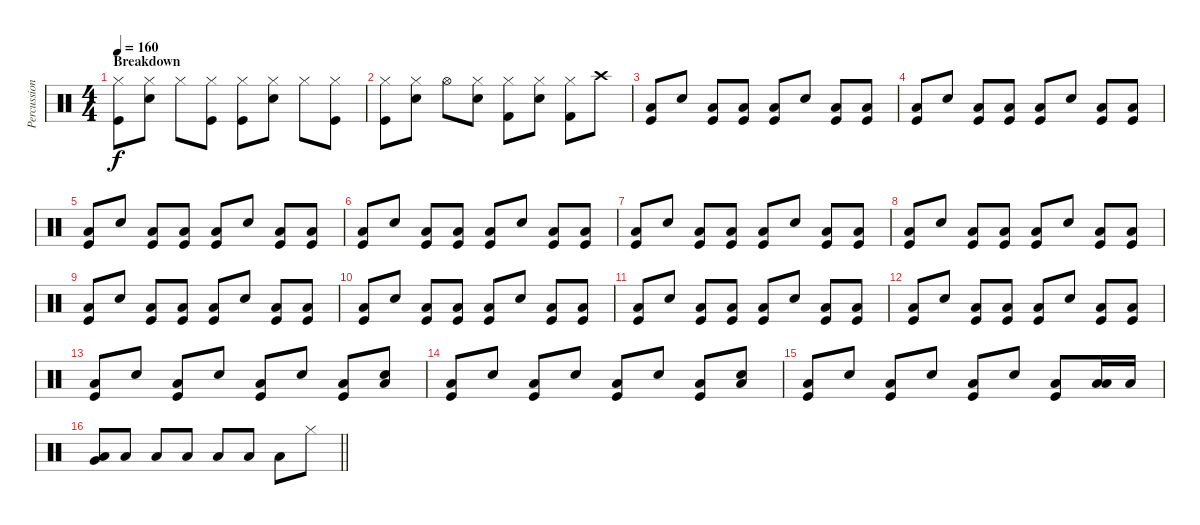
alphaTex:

\track ("Percussion" "Percussion") {instrument percussion}
\staff {score}
\articulation defaults
\ts (4 4)
\section ("" "Breakdown")
\tempo 160
\clef neutral
\ks c
("Hi-Hat (closed)" "Kick (hit)").8{dy f} ("Hi-Hat (closed)" "Electric Snare (hit)").8 "Hi-Hat (closed)".8 ("Hi-Hat (closed)" "Kick (hit)").8 ("Hi-Hat (closed)" "Kick (hit)").8 ("Hi-Hat (closed)" "Electric Snare (hit)").8 "Hi-Hat (closed)".8 ("Hi-Hat (closed)" "Kick (hit)").8 |
("Hi-Hat (closed)" "Kick (hit)").8 ("Hi-Hat (closed)" "Electric Snare (hit)").8 "Hi-Hat (open)".8 ("Hi-Hat (closed)" "Snare (hit) 2").8 ("Hi-Hat (closed)" "Kick (hit) 2").8 ("Hi-Hat (closed)" "Snare (hit) 2").8 ("Hi-Hat (closed)" "Kick (hit) 2").8 "Crash high (hit)".8 |
("Low Floor Tom (hit)" "Kick (hit)").8 "Electric Snare (hit)".8 ("Low Floor Tom (hit)" "Kick (hit)").8 ("Low Floor Tom (hit)" "Kick (hit)").8 ("Low Floor Tom (hit)" "Kick (hit)").8 "Electric Snare (hit)".8 ("Low Floor Tom (hit)" "Kick (hit)").8 ("Low Floor Tom (hit)" "Kick (hit)").8 |
("Low Floor Tom (hit)" "Kick (hit)").8 "Electric Snare (hit)".8 ("Low Floor Tom (hit)" "Kick (hit)").8 ("Low Floor Tom (hit)" "Kick (hit)").8 ("Low Floor Tom (hit)" "Kick (hit)").8 "Electric Snare (hit)".8 ("Low Floor Tom (hit)" "Kick (hit)").8 ("Low Floor Tom (hit)" "Kick (hit)").8 |
("Low Floor Tom (hit)" "Kick (hit)").8 "Electric Snare (hit)".8 ("Low Floor Tom (hit)" "Kick (hit)").8 ("Low Floor Tom (hit)" "Kick (hit)").8 ("Low Floor Tom (hit)" "Kick (hit)").8 "Electric Snare (hit)".8 ("Low Floor Tom (hit)" "Kick (hit)").8 ("Low Floor Tom (hit)" "Kick (hit)").8 |
("Low Floor Tom (hit)" "Kick (hit)").8 "Electric Snare (hit)".8 ("Low Floor Tom (hit)" "Kick (hit)").8 ("Low Floor Tom (hit)" "Kick (hit)").8 ("Low Floor Tom (hit)" "Kick (hit)").8 "Electric Snare (hit)".8 ("Low Floor Tom (hit)" "Kick (hit)").8 ("Low Floor Tom (hit)" "Kick (hit)").8 |
("Low Floor Tom (hit)" "Kick (hit)").8 "Electric Snare (hit)".8 ("Low Floor Tom (hit)" "Kick (hit)").8 ("Low Floor Tom (hit)" "Kick (hit)").8 ("Low Floor Tom (hit)" "Kick (hit)").8 "Electric Snare (hit)".8 ("Low Floor Tom (hit)" "Kick (hit)").8 ("Low Floor Tom (hit)" "Kick (hit)").8 |
("Low Floor Tom (hit)" "Kick (hit)").8 "Electric Snare (hit)".8 ("Low Floor Tom (hit)" "Kick (hit)").8 ("Low Floor Tom (hit)" "Kick (hit)").8 ("Low Floor Tom (hit)" "Kick (hit)").8 "Electric Snare (hit)".8 ("Low Floor Tom (hit)" "Kick (hit)").8 ("Low Floor Tom (hit)" "Kick (hit)").8 |
("Low Floor Tom (hit)" "Kick (hit)").8 "Electric Snare (hit)".8 ("Low Floor Tom (hit)" "Kick (hit)").8 ("Low Floor Tom (hit)" "Kick (hit)").8 ("Low Floor Tom (hit)" "Kick (hit)").8 "Electric Snare (hit)".8 ("Low Floor Tom (hit)" "Kick (hit)").8 ("Low Floor Tom (hit)" "Kick (hit)").8 |
("Low Floor Tom (hit)" "Kick (hit)").8 "Electric Snare (hit)".8 ("Low Floor Tom (hit)" "Kick (hit)").8 ("Low Floor Tom (hit)" "Kick (hit)").8 ("Low Floor Tom (hit)" "Kick (hit)").8 "Electric Snare (hit)".8 ("Low Floor Tom (hit)" "Kick (hit)").8 ("Low Floor Tom (hit)" "Kick (hit)").8 |
("Low Floor Tom (hit)" "Kick (hit)").8 "Electric Snare (hit)".8 ("Low Floor Tom (hit)" "Kick (hit)").8 ("Low Floor Tom (hit)" "Kick (hit)").8 ("Low Floor Tom (hit)" "Kick (hit)").8 "Electric Snare (hit)".8 ("Low Floor Tom (hit)" "Kick (hit)").8 ("Low Floor Tom (hit)" "Kick (hit)").8 |
("Low Floor Tom (hit)" "Kick (hit)").8 "Electric Snare (hit)".8 ("Low Floor Tom (hit)" "Kick (hit)").8 ("Low Floor Tom (hit)" "Kick (hit)").8 ("Low Floor Tom (hit)" "Kick (hit)").8 "Electric Snare (hit)".8 ("Low Floor Tom (hit)" "Kick (hit)").8 ("Low Floor Tom (hit)" "Kick (hit)").8 |
("Low Floor Tom (hit)" "Kick (hit)").8 "Electric Snare (hit)".8 ("Low Floor Tom (hit)" "Kick (hit)").8 "Electric Snare (hit)".8 ("Low Floor Tom (hit)" "Kick (hit)").8 "Electric Snare (hit)".8 ("Low Floor Tom (hit)" "Kick (hit)").8 ("Low Floor Tom (hit)" "Electric Snare (hit)").8 |
("Low Floor Tom (hit)" "Kick (hit)").8 "Electric Snare (hit)".8 ("Low Floor Tom (hit)" "Kick (hit)").8 "Electric Snare (hit)".8 ("Low Floor Tom (hit)" "Kick (hit)").8 "Electric Snare (hit)".8 ("Low Floor Tom (hit)" "Kick (hit)").8 ("Low Floor Tom (hit)" "Electric Snare (hit)").8 |
("Low Floor Tom (hit)" "Kick (hit)").8 "Electric Snare (hit)".8 ("Low Floor Tom (hit)" "Kick (hit)").8 "Electric Snare (hit)".8 ("Low Floor Tom (hit)" "Kick (hit)").8 "Electric Snare (hit)".8 ("Low Floor Tom (hit)" "Kick (hit)").8 ("Low Tom (hit)" "Low Floor Tom (hit)").16 "Low Tom (hit)".16 |
\barLineRight lightlight
("Very Low Tom (hit)" "Low Floor Tom (hit)").8 "Low Floor Tom (hit)".8 "Low Floor Tom (hit)".8 "Low Floor Tom (hit)".8 "Low Floor Tom (hit)".8 "Low Floor Tom (hit)".8 "Low Floor Tom (hit)".8 "Hi-Hat (closed)".8
